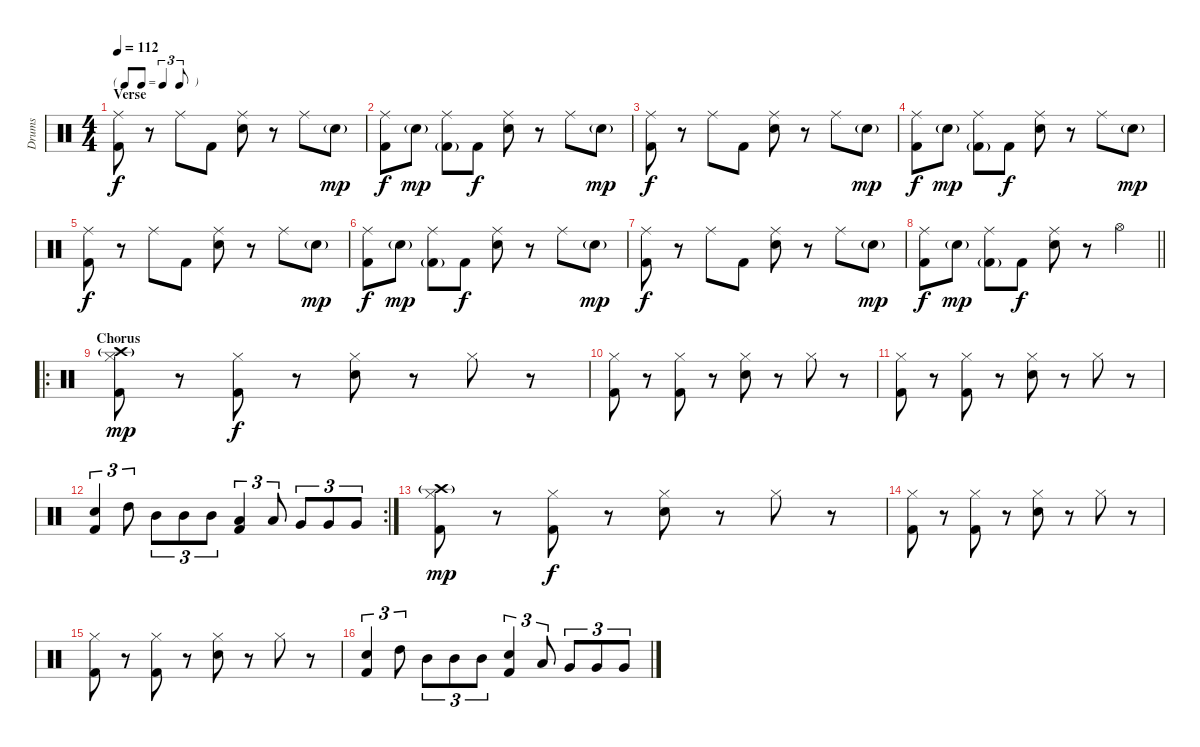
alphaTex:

\track ("Drums" "Drums") {instrument percussion}
\staff {score}
\articulation defaults
\ts (4 4)
\tf triplet8th
\section ("" "Verse")
\tempo 112
\clef neutral
\ks c
("Ride (middle)" "Kick (hit) 2").8{dy f} r.8 "Ride (middle)".8 "Kick (hit) 2".8 ("Ride (middle)" "Snare (hit) 2").8 r.8 "Ride (middle)".8 "Snare (hit) 2"{g}.8{dy mp} |
("Ride (middle)" "Kick (hit) 2").8{dy f} "Snare (hit) 2"{g}.8{dy mp} ("Ride (middle)" "Kick (hit) 2"{g}).8 "Kick (hit) 2".8{dy f} ("Ride (middle)" "Snare (hit) 2").8 r.8 "Ride (middle)".8 "Snare (hit) 2"{g}.8{dy mp} |
("Ride (middle)" "Kick (hit) 2").8{dy f} r.8 "Ride (middle)".8 "Kick (hit) 2".8 ("Ride (middle)" "Snare (hit) 2").8 r.8 "Ride (middle)".8 "Snare (hit) 2"{g}.8{dy mp} |
("Ride (middle)" "Kick (hit) 2").8{dy f} "Snare (hit) 2"{g}.8{dy mp} ("Ride (middle)" "Kick (hit) 2"{g}).8 "Kick (hit) 2".8{dy f} ("Ride (middle)" "Snare (hit) 2").8 r.8 "Ride (middle)".8 "Snare (hit) 2"{g}.8{dy mp} |
("Ride (middle)" "Kick (hit) 2").8{dy f} r.8 "Ride (middle)".8 "Kick (hit) 2".8 ("Ride (middle)" "Snare (hit) 2").8 r.8 "Ride (middle)".8 "Snare (hit) 2"{g}.8{dy mp} |
("Ride (middle)" "Kick (hit) 2").8{dy f} "Snare (hit) 2"{g}.8{dy mp} ("Ride (middle)" "Kick (hit) 2"{g}).8 "Kick (hit) 2".8{dy f} ("Ride (middle)" "Snare (hit) 2").8 r.8 "Ride (middle)".8 "Snare (hit) 2"{g}.8{dy mp} |
("Ride (middle)" "Kick (hit) 2").8{dy f} r.8 "Ride (middle)".8 "Kick (hit) 2".8 ("Ride (middle)" "Snare (hit) 2").8 r.8 "Ride (middle)".8 "Snare (hit) 2"{g}.8{dy mp} |
\barLineRight lightlight
("Ride (middle)" "Kick (hit) 2").8{dy f} "Snare (hit) 2"{g}.8{dy mp} ("Ride (middle)" "Kick (hit) 2"{g}).8 "Kick (hit) 2".8{dy f} ("Ride (middle)" "Snare (hit) 2").8 r.8 "Hi-Hat (open)".4 |
\ro
\section ("" "Chorus")
("Crash high (hit)"{g} "Hi-Hat (closed)" "Kick (hit) 2").8{dy mp} r.8 ("Hi-Hat (closed)" "Kick (hit) 2").8{dy f} r.8 ("Hi-Hat (closed)" "Snare (hit) 2").8 r.8 "Hi-Hat (closed)".8 r.8 |
("Hi-Hat (closed)" "Kick (hit) 2").8 r.8 ("Hi-Hat (closed)" "Kick (hit) 2").8 r.8 ("Hi-Hat (closed)" "Snare (hit) 2").8 r.8 "Hi-Hat (closed)".8 r.8 |
("Hi-Hat (closed)" "Kick (hit) 2").8 r.8 ("Hi-Hat (closed)" "Kick (hit) 2").8 r.8 ("Hi-Hat (closed)" "Snare (hit) 2").8 r.8 "Hi-Hat (closed)".8 r.8 |
\rc 2
("Snare (hit) 2" "Kick (hit) 2").4{tu (3 2)} "High Tom (hit)".8{tu (3 2)} "Mid Tom (hit)".8{tu (3 2)} "Mid Tom (hit)".8{tu (3 2)} "Mid Tom (hit)".8{tu (3 2)} ("Low Tom (hit)" "Kick (hit) 2").4{tu (3 2)} "Low Tom (hit)".8{tu (3 2)} "Very Low Tom (hit)".8{tu (3 2)} "Very Low Tom (hit)".8{tu (3 2)} "Very Low Tom (hit)".8{tu (3 2)} |
("Crash high (hit)"{g} "Hi-Hat (closed)" "Kick (hit) 2").8{dy mp} r.8 ("Hi-Hat (closed)" "Kick (hit) 2").8{dy f} r.8 ("Hi-Hat (closed)" "Snare (hit) 2").8 r.8 "Hi-Hat (closed)".8 r.8 |
("Hi-Hat (closed)" "Kick (hit) 2").8 r.8 ("Hi-Hat (closed)" "Kick (hit) 2").8 r.8 ("Hi-Hat (closed)" "Snare (hit) 2").8 r.8 "Hi-Hat (closed)".8 r.8 |
("Hi-Hat (closed)" "Kick (hit) 2").8 r.8 ("Hi-Hat (closed)" "Kick (hit) 2").8 r.8 ("Hi-Hat (closed)" "Snare (hit) 2").8 r.8 "Hi-Hat (closed)".8 r.8 |
("Snare (hit) 2" "Kick (hit) 2").4{tu (3 2)} "High Tom (hit)".8{tu (3 2)} "Mid Tom (hit)".8{tu (3 2)} "Mid Tom (hit)".8{tu (3 2)} "Mid Tom (hit)".8{tu (3 2)} ("Snare (hit) 2" "Kick (hit) 2").4{tu (3 2)} "Low Tom (hit)".8{tu (3 2)} "Very Low Tom (hit)".8{tu (3 2)} "Very Low Tom (hit)".8{tu (3 2)} "Very Low Tom (hit)".8{tu (3 2)}
